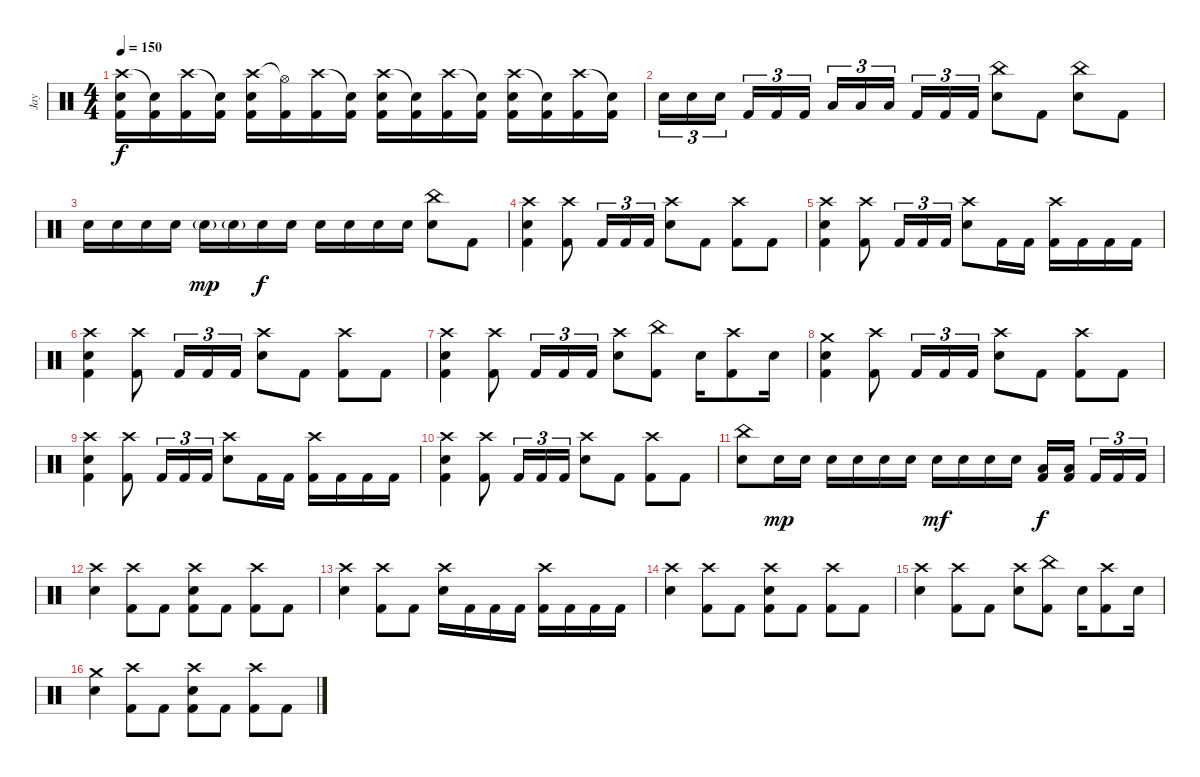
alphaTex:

\track ("Jay" "Jay") {instrument percussion}
\staff {score}
\articulation defaults
\ts (4 4)
\tempo 150
\clef neutral
\ks c
("Crash high (hit)" "Electric Snare (hit)" "Kick (hit) 2").16{dy f} ("Snare (hit)"{t} "Kick (hit) 2").16 ("Crash high (hit)" "Kick (hit) 2").16 ("Snare (hit)"{t} "Kick (hit) 2").16 ("Crash high (hit)" "Electric Snare (hit)" "Kick (hit) 2").16 ("Hi-Hat (open)"{t} "Kick (hit) 2").16 ("Crash high (hit)" "Kick (hit) 2").16 ("Snare (hit)"{t} "Kick (hit) 2").16 ("Crash high (hit)" "Electric Snare (hit)" "Kick (hit) 2").16 ("Snare (hit)"{t} "Kick (hit) 2").16 ("Crash high (hit)" "Kick (hit) 2").16 ("Snare (hit)"{t} "Kick (hit) 2").16 ("Crash high (hit)" "Electric Snare (hit)" "Kick (hit) 2").16 ("Snare (hit)"{t} "Kick (hit) 2").16 ("Crash high (hit)" "Kick (hit) 2").16 ("Snare (hit)"{t} "Kick (hit) 2").16 |
"Electric Snare (hit)".16{tu (3 2)} "Electric Snare (hit)".16{tu (3 2)} "Electric Snare (hit)".16{tu (3 2) beam splitsecondary} "Kick (hit) 2".16{tu (3 2)} "Kick (hit) 2".16{tu (3 2)} "Kick (hit) 2".16{tu (3 2)} "Low Tom (hit)".16{tu (3 2)} "Low Tom (hit)".16{tu (3 2)} "Low Tom (hit)".16{tu (3 2) beam splitsecondary} "Kick (hit) 2".16{tu (3 2)} "Kick (hit) 2".16{tu (3 2)} "Kick (hit) 2".16{tu (3 2)} ("China (hit)" "Electric Snare (hit)").8 "Kick (hit) 2".8 ("China (hit)" "Electric Snare (hit)").8 "Kick (hit) 2".8 |
"Electric Snare (hit)".16 "Electric Snare (hit)".16 "Electric Snare (hit)".16 "Electric Snare (hit)".16 "Electric Snare (hit)"{g}.16{dy mp} "Electric Snare (hit)"{g}.16 "Electric Snare (hit)".16{dy f} "Electric Snare (hit)".16 "Electric Snare (hit)".16 "Electric Snare (hit)".16 "Electric Snare (hit)".16 "Electric Snare (hit)".16 ("China (hit)" "Electric Snare (hit)").8 "Kick (hit) 2".8 |
("Crash high (hit)" "Electric Snare (hit)" "Kick (hit) 2").4 ("Crash high (hit)" "Kick (hit) 2").8 "Kick (hit) 2".16{tu (3 2)} "Kick (hit) 2".16{tu (3 2)} "Kick (hit) 2".16{tu (3 2)} ("Crash high (hit)" "Electric Snare (hit)").8 "Kick (hit) 2".8 ("Crash high (hit)" "Kick (hit) 2").8 "Kick (hit) 2".8 |
("Crash high (hit)" "Electric Snare (hit)" "Kick (hit) 2").4 ("Crash high (hit)" "Kick (hit) 2").8 "Kick (hit) 2".16{tu (3 2)} "Kick (hit) 2".16{tu (3 2)} "Kick (hit) 2".16{tu (3 2)} ("Crash high (hit)" "Electric Snare (hit)").8 "Kick (hit) 2".16 "Kick (hit) 2".16 ("Crash high (hit)" "Kick (hit) 2").16 "Kick (hit) 2".16 "Kick (hit) 2".16 "Kick (hit) 2".16 |
("Crash high (hit)" "Electric Snare (hit)" "Kick (hit) 2").4 ("Crash high (hit)" "Kick (hit) 2").8 "Kick (hit) 2".16{tu (3 2)} "Kick (hit) 2".16{tu (3 2)} "Kick (hit) 2".16{tu (3 2)} ("Crash high (hit)" "Electric Snare (hit)").8 "Kick (hit) 2".8 ("Crash high (hit)" "Kick (hit) 2").8 "Kick (hit) 2".8 |
("Crash high (hit)" "Electric Snare (hit)" "Kick (hit) 2").4 ("Crash high (hit)" "Kick (hit) 2").8 "Kick (hit) 2".16{tu (3 2)} "Kick (hit) 2".16{tu (3 2)} "Kick (hit) 2".16{tu (3 2)} ("Crash high (hit)" "Electric Snare (hit)").8 ("China (hit)" "Kick (hit) 2").8 "Electric Snare (hit)".16 ("Crash high (hit)" "Kick (hit) 2").8 "Electric Snare (hit)".16 |
("Crash medium (hit)" "Electric Snare (hit)" "Kick (hit) 2").4 ("Crash high (hit)" "Kick (hit) 2").8 "Kick (hit) 2".16{tu (3 2)} "Kick (hit) 2".16{tu (3 2)} "Kick (hit) 2".16{tu (3 2)} ("Crash high (hit)" "Electric Snare (hit)").8 "Kick (hit) 2".8 ("Crash high (hit)" "Kick (hit) 2").8 "Kick (hit) 2".8 |
("Crash high (hit)" "Electric Snare (hit)" "Kick (hit) 2").4 ("Crash high (hit)" "Kick (hit) 2").8 "Kick (hit) 2".16{tu (3 2)} "Kick (hit) 2".16{tu (3 2)} "Kick (hit) 2".16{tu (3 2)} ("Crash high (hit)" "Electric Snare (hit)").8 "Kick (hit) 2".16 "Kick (hit) 2".16 ("Crash high (hit)" "Kick (hit) 2").16 "Kick (hit) 2".16 "Kick (hit) 2".16 "Kick (hit) 2".16 |
("Crash high (hit)" "Electric Snare (hit)" "Kick (hit) 2").4 ("Crash high (hit)" "Kick (hit) 2").8 "Kick (hit) 2".16{tu (3 2)} "Kick (hit) 2".16{tu (3 2)} "Kick (hit) 2".16{tu (3 2)} ("Crash high (hit)" "Electric Snare (hit)").8 "Kick (hit) 2".8 ("Crash high (hit)" "Kick (hit) 2").8 "Kick (hit) 2".8 |
("China (hit)" "Electric Snare (hit)").8 "Electric Snare (hit)".16{dy mp} "Electric Snare (hit)".16 "Electric Snare (hit)".16 "Electric Snare (hit)".16 "Electric Snare (hit)".16 "Electric Snare (hit)".16 "Electric Snare (hit)".16{dy mf} "Electric Snare (hit)".16 "Electric Snare (hit)".16 "Electric Snare (hit)".16 ("Low Tom (hit)" "Kick (hit) 2").16{dy f} ("Low Tom (hit)" "Kick (hit) 2").16{beam splitsecondary} "Kick (hit) 2".16{tu (3 2)} "Kick (hit) 2".16{tu (3 2)} "Kick (hit) 2".16{tu (3 2)} |
("Crash high (hit)" "Electric Snare (hit)").4 ("Crash high (hit)" "Kick (hit) 2").8 "Kick (hit) 2".8 ("Crash high (hit)" "Electric Snare (hit)" "Kick (hit) 2").8 "Kick (hit) 2".8 ("Crash high (hit)" "Kick (hit) 2").8 "Kick (hit) 2".8 |
("Crash high (hit)" "Electric Snare (hit)").4 ("Crash high (hit)" "Kick (hit) 2").8 "Kick (hit) 2".8 ("Crash high (hit)" "Electric Snare (hit)").16 "Kick (hit) 2".16 "Kick (hit) 2".16 "Kick (hit) 2".16 ("Crash high (hit)" "Kick (hit) 2").16 "Kick (hit) 2".16 "Kick (hit) 2".16 "Kick (hit) 2".16 |
("Crash high (hit)" "Electric Snare (hit)").4 ("Crash high (hit)" "Kick (hit) 2").8 "Kick (hit) 2".8 ("Crash high (hit)" "Electric Snare (hit)" "Kick (hit) 2").8 "Kick (hit) 2".8 ("Crash high (hit)" "Kick (hit) 2").8 "Kick (hit) 2".8 |
("Crash high (hit)" "Electric Snare (hit)").4 ("Crash high (hit)" "Kick (hit) 2").8 "Kick (hit) 2".8 ("Crash high (hit)" "Electric Snare (hit)").8 ("China (hit)" "Kick (hit) 2").8 "Electric Snare (hit)".16 ("Crash high (hit)" "Kick (hit) 2").8 "Electric Snare (hit)".16 |
("Crash medium (hit)" "Electric Snare (hit)").4 ("Crash high (hit)" "Kick (hit) 2").8 "Kick (hit) 2".8 ("Crash high (hit)" "Electric Snare (hit)" "Kick (hit) 2").8 "Kick (hit) 2".8 ("Crash high (hit)" "Kick (hit) 2").8 "Kick (hit) 2".8
